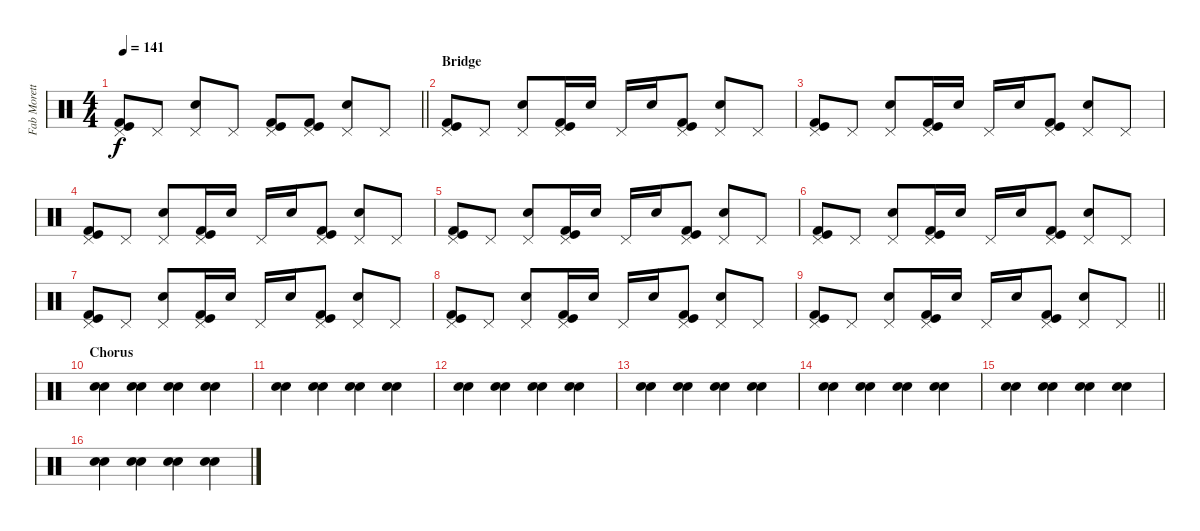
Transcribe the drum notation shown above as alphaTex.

\track ("Fab Moretti - Drums" "Fab Morett") {instrument percussion}
\staff {score}
\articulation defaults
\ts (4 4)
\tempo 141
\clef neutral
\barLineRight lightlight
\ks c
("Pedal Hi-Hat (hit)" "Kick (hit) 2" "Kick (hit)").8{dy f} "Pedal Hi-Hat (hit)".8 ("Pedal Hi-Hat (hit)" "Snare (hit) 2").8 "Pedal Hi-Hat (hit)".8 ("Pedal Hi-Hat (hit)" "Kick (hit) 2" "Kick (hit)").8 ("Pedal Hi-Hat (hit)" "Kick (hit) 2" "Kick (hit)").8 ("Pedal Hi-Hat (hit)" "Snare (hit) 2").8 "Pedal Hi-Hat (hit)".8 |
\section ("" "Bridge")
("Pedal Hi-Hat (hit)" "Kick (hit) 2" "Kick (hit)").8 "Pedal Hi-Hat (hit)".8 ("Pedal Hi-Hat (hit)" "Snare (hit) 2").8 ("Pedal Hi-Hat (hit)" "Kick (hit) 2" "Kick (hit)").16 "Snare (hit) 2".16 "Pedal Hi-Hat (hit)".16 "Snare (hit) 2".16 ("Pedal Hi-Hat (hit)" "Kick (hit) 2" "Kick (hit)").8 ("Pedal Hi-Hat (hit)" "Snare (hit) 2").8 "Pedal Hi-Hat (hit)".8 |
("Pedal Hi-Hat (hit)" "Kick (hit) 2" "Kick (hit)").8 "Pedal Hi-Hat (hit)".8 ("Pedal Hi-Hat (hit)" "Snare (hit) 2").8 ("Pedal Hi-Hat (hit)" "Kick (hit) 2" "Kick (hit)").16 "Snare (hit) 2".16 "Pedal Hi-Hat (hit)".16 "Snare (hit) 2".16 ("Pedal Hi-Hat (hit)" "Kick (hit) 2" "Kick (hit)").8 ("Pedal Hi-Hat (hit)" "Snare (hit) 2").8 "Pedal Hi-Hat (hit)".8 |
("Pedal Hi-Hat (hit)" "Kick (hit) 2" "Kick (hit)").8 "Pedal Hi-Hat (hit)".8 ("Pedal Hi-Hat (hit)" "Snare (hit) 2").8 ("Pedal Hi-Hat (hit)" "Kick (hit) 2" "Kick (hit)").16 "Snare (hit) 2".16 "Pedal Hi-Hat (hit)".16 "Snare (hit) 2".16 ("Pedal Hi-Hat (hit)" "Kick (hit) 2" "Kick (hit)").8 ("Pedal Hi-Hat (hit)" "Snare (hit) 2").8 "Pedal Hi-Hat (hit)".8 |
("Pedal Hi-Hat (hit)" "Kick (hit) 2" "Kick (hit)").8 "Pedal Hi-Hat (hit)".8 ("Pedal Hi-Hat (hit)" "Snare (hit) 2").8 ("Pedal Hi-Hat (hit)" "Kick (hit) 2" "Kick (hit)").16 "Snare (hit) 2".16 "Pedal Hi-Hat (hit)".16 "Snare (hit) 2".16 ("Pedal Hi-Hat (hit)" "Kick (hit) 2" "Kick (hit)").8 ("Pedal Hi-Hat (hit)" "Snare (hit) 2").8 "Pedal Hi-Hat (hit)".8 |
("Pedal Hi-Hat (hit)" "Kick (hit) 2" "Kick (hit)").8 "Pedal Hi-Hat (hit)".8 ("Pedal Hi-Hat (hit)" "Snare (hit) 2").8 ("Pedal Hi-Hat (hit)" "Kick (hit) 2" "Kick (hit)").16 "Snare (hit) 2".16 "Pedal Hi-Hat (hit)".16 "Snare (hit) 2".16 ("Pedal Hi-Hat (hit)" "Kick (hit) 2" "Kick (hit)").8 ("Pedal Hi-Hat (hit)" "Snare (hit) 2").8 "Pedal Hi-Hat (hit)".8 |
("Pedal Hi-Hat (hit)" "Kick (hit) 2" "Kick (hit)").8 "Pedal Hi-Hat (hit)".8 ("Pedal Hi-Hat (hit)" "Snare (hit) 2").8 ("Pedal Hi-Hat (hit)" "Kick (hit) 2" "Kick (hit)").16 "Snare (hit) 2".16 "Pedal Hi-Hat (hit)".16 "Snare (hit) 2".16 ("Pedal Hi-Hat (hit)" "Kick (hit) 2" "Kick (hit)").8 ("Pedal Hi-Hat (hit)" "Snare (hit) 2").8 "Pedal Hi-Hat (hit)".8 |
("Pedal Hi-Hat (hit)" "Kick (hit) 2" "Kick (hit)").8 "Pedal Hi-Hat (hit)".8 ("Pedal Hi-Hat (hit)" "Snare (hit) 2").8 ("Pedal Hi-Hat (hit)" "Kick (hit) 2" "Kick (hit)").16 "Snare (hit) 2".16 "Pedal Hi-Hat (hit)".16 "Snare (hit) 2".16 ("Pedal Hi-Hat (hit)" "Kick (hit) 2" "Kick (hit)").8 ("Pedal Hi-Hat (hit)" "Snare (hit) 2").8 "Pedal Hi-Hat (hit)".8 |
\barLineRight lightlight
("Pedal Hi-Hat (hit)" "Kick (hit) 2" "Kick (hit)").8 "Pedal Hi-Hat (hit)".8 ("Pedal Hi-Hat (hit)" "Snare (hit) 2").8 ("Pedal Hi-Hat (hit)" "Kick (hit) 2" "Kick (hit)").16 "Snare (hit) 2".16 "Pedal Hi-Hat (hit)".16 "Snare (hit) 2".16 ("Pedal Hi-Hat (hit)" "Kick (hit) 2" "Kick (hit)").8 ("Pedal Hi-Hat (hit)" "Snare (hit) 2").8 "Pedal Hi-Hat (hit)".8 |
\section ("" "Chorus")
("Snare (hit) 2" "Snare (hit) 2").4 ("Snare (hit) 2" "Snare (hit) 2").4 ("Snare (hit) 2" "Snare (hit) 2").4 ("Snare (hit) 2" "Snare (hit) 2").4 |
("Snare (hit) 2" "Snare (hit) 2").4 ("Snare (hit) 2" "Snare (hit) 2").4 ("Snare (hit) 2" "Snare (hit) 2").4 ("Snare (hit) 2" "Snare (hit) 2").4 |
("Snare (hit) 2" "Snare (hit) 2").4 ("Snare (hit) 2" "Snare (hit) 2").4 ("Snare (hit) 2" "Snare (hit) 2").4 ("Snare (hit) 2" "Snare (hit) 2").4 |
("Snare (hit) 2" "Snare (hit) 2").4 ("Snare (hit) 2" "Snare (hit) 2").4 ("Snare (hit) 2" "Snare (hit) 2").4 ("Snare (hit) 2" "Snare (hit) 2").4 |
("Snare (hit) 2" "Snare (hit) 2").4 ("Snare (hit) 2" "Snare (hit) 2").4 ("Snare (hit) 2" "Snare (hit) 2").4 ("Snare (hit) 2" "Snare (hit) 2").4 |
("Snare (hit) 2" "Snare (hit) 2").4 ("Snare (hit) 2" "Snare (hit) 2").4 ("Snare (hit) 2" "Snare (hit) 2").4 ("Snare (hit) 2" "Snare (hit) 2").4 |
("Snare (hit) 2" "Snare (hit) 2").4 ("Snare (hit) 2" "Snare (hit) 2").4 ("Snare (hit) 2" "Snare (hit) 2").4 ("Snare (hit) 2" "Snare (hit) 2").4
